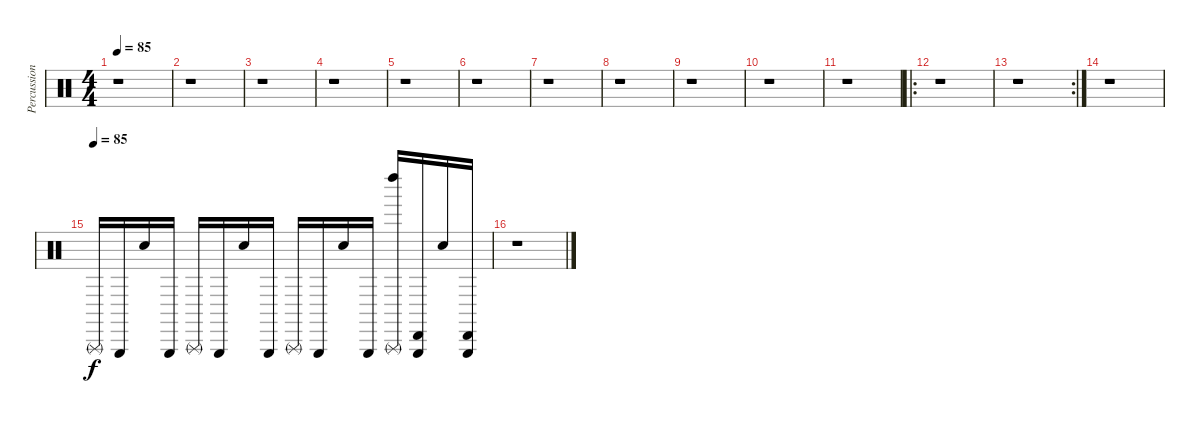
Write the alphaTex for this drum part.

\track ("Percussion" "Percussion") {instrument percussion}
\staff {score}
\articulation defaults
\ts (4 4)
\tempo 85
\clef neutral
\ks c
r.1{dy f} |
r.1 |
r.1 |
r.1 |
r.1 |
r.1 |
r.1 |
r.1 |
r.1 |
r.1 |
r.1 |
\ro
r.1 |
\rc 2
r.1 |
r.1{volume 0} |
\tempo (85)
"Triangle (rnute)".16{volume 16} "Triangle (hit)".16 "Metronome (bell)".16 "Triangle (hit)".16 "Triangle (rnute)".16 "Triangle (hit)".16 "Metronome (bell)".16 "Triangle (hit)".16 "Triangle (rnute)".16 "Triangle (hit)".16 "Metronome (bell)".16 "Triangle (hit)".16 ("Left Maraca (hit)" "Triangle (rnute)").16 ("Cabasa (hit)" "Triangle (hit)").16 "Metronome (bell)".16 ("Cabasa (hit)" "Triangle (hit)").16 |
r.1
